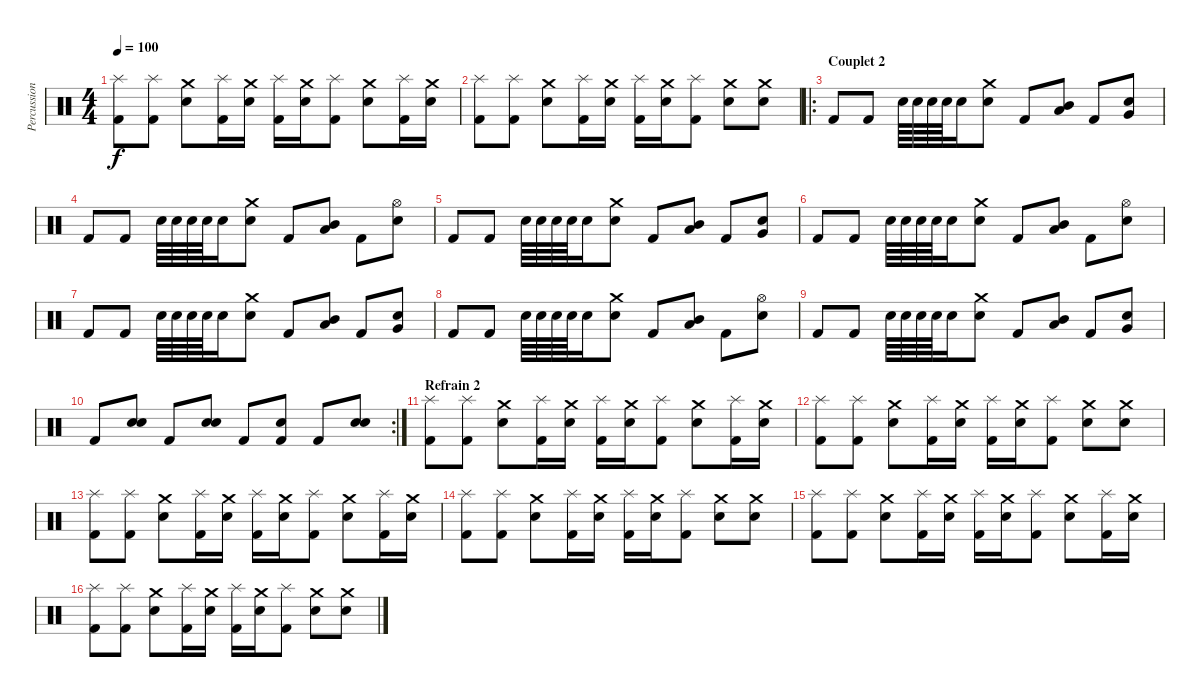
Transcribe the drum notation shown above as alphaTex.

\track ("Percussions" "Percussion") {instrument percussion}
\staff {score}
\articulation defaults
\ts (4 4)
\tempo 100
\clef neutral
\ks c
("Splash (hit)" "Kick (hit) 2").8{dy f} ("Splash (hit)" "Kick (hit) 2").8 ("Crash medium (hit)" "Snare (hit) 2").8 ("Splash (hit)" "Kick (hit) 2").16 ("Crash medium (hit)" "Snare (hit) 2").16 ("Splash (hit)" "Kick (hit) 2").16 ("Crash medium (hit)" "Snare (hit) 2").16 ("Splash (hit)" "Kick (hit) 2").8 ("Crash medium (hit)" "Snare (hit) 2").8 ("Splash (hit)" "Kick (hit) 2").16 ("Crash medium (hit)" "Snare (hit) 2").16 |
("Splash (hit)" "Kick (hit) 2").8 ("Splash (hit)" "Kick (hit) 2").8 ("Crash medium (hit)" "Snare (hit) 2").8 ("Splash (hit)" "Kick (hit) 2").16 ("Crash medium (hit)" "Snare (hit) 2").16 ("Splash (hit)" "Kick (hit) 2").16 ("Crash medium (hit)" "Snare (hit) 2").16 ("Splash (hit)" "Kick (hit) 2").8 ("Crash medium (hit)" "Snare (hit) 2").8 ("Crash medium (hit)" "Snare (hit) 2").8 |
\ro
\section ("" "Couplet 2")
"Kick (hit) 2".8 "Kick (hit) 2".8 "Snare (hit) 2".64 "Snare (hit) 2".64 "Snare (hit) 2".64 "Snare (hit) 2".64 "Snare (hit) 2".16 ("Crash medium (hit)" "Snare (hit) 2").8 "Kick (hit) 2".8 ("Mid Tom (hit)" "Low Tom (hit)").8 "Kick (hit) 2".8 ("Very Low Tom (hit)" "Snare (hit) 2").8 |
"Kick (hit) 2".8 "Kick (hit) 2".8 "Snare (hit) 2".64 "Snare (hit) 2".64 "Snare (hit) 2".64 "Snare (hit) 2".64 "Snare (hit) 2".16 ("Crash medium (hit)" "Snare (hit) 2").8 "Kick (hit) 2".8 ("Mid Tom (hit)" "Low Tom (hit)").8 "Kick (hit) 2".8 ("Hi-Hat (open)" "Snare (hit) 2").8 |
"Kick (hit) 2".8 "Kick (hit) 2".8 "Snare (hit) 2".64 "Snare (hit) 2".64 "Snare (hit) 2".64 "Snare (hit) 2".64 "Snare (hit) 2".16 ("Crash medium (hit)" "Snare (hit) 2").8 "Kick (hit) 2".8 ("Mid Tom (hit)" "Low Tom (hit)").8 "Kick (hit) 2".8 ("Very Low Tom (hit)" "Snare (hit) 2").8 |
"Kick (hit) 2".8 "Kick (hit) 2".8 "Snare (hit) 2".64 "Snare (hit) 2".64 "Snare (hit) 2".64 "Snare (hit) 2".64 "Snare (hit) 2".16 ("Crash medium (hit)" "Snare (hit) 2").8 "Kick (hit) 2".8 ("Mid Tom (hit)" "Low Tom (hit)").8 "Kick (hit) 2".8 ("Hi-Hat (open)" "Snare (hit) 2").8 |
"Kick (hit) 2".8 "Kick (hit) 2".8 "Snare (hit) 2".64 "Snare (hit) 2".64 "Snare (hit) 2".64 "Snare (hit) 2".64 "Snare (hit) 2".16 ("Crash medium (hit)" "Snare (hit) 2").8 "Kick (hit) 2".8 ("Mid Tom (hit)" "Low Tom (hit)").8 "Kick (hit) 2".8 ("Very Low Tom (hit)" "Snare (hit) 2").8 |
"Kick (hit) 2".8 "Kick (hit) 2".8 "Snare (hit) 2".64 "Snare (hit) 2".64 "Snare (hit) 2".64 "Snare (hit) 2".64 "Snare (hit) 2".16 ("Crash medium (hit)" "Snare (hit) 2").8 "Kick (hit) 2".8 ("Mid Tom (hit)" "Low Tom (hit)").8 "Kick (hit) 2".8 ("Hi-Hat (open)" "Snare (hit) 2").8 |
"Kick (hit) 2".8 "Kick (hit) 2".8 "Snare (hit) 2".64 "Snare (hit) 2".64 "Snare (hit) 2".64 "Snare (hit) 2".64 "Snare (hit) 2".16 ("Crash medium (hit)" "Snare (hit) 2").8 "Kick (hit) 2".8 ("Mid Tom (hit)" "Low Tom (hit)").8 "Kick (hit) 2".8 ("Very Low Tom (hit)" "Snare (hit) 2").8 |
\rc 2 "Kick (hit) 2".8
("Snare (hit) 2" "Snare (hit) 2").8 "Kick (hit) 2".8 ("Snare (hit) 2" "Snare (hit) 2").8 "Kick (hit) 2".8 ("Kick (hit) 2" "Snare (hit) 2").8 "Kick (hit) 2".8 ("Snare (hit) 2" "Snare (hit) 2").8 |
\section ("" "Refrain 2")
("Splash (hit)" "Kick (hit) 2").8 ("Splash (hit)" "Kick (hit) 2").8 ("Crash medium (hit)" "Snare (hit) 2").8 ("Splash (hit)" "Kick (hit) 2").16 ("Crash medium (hit)" "Snare (hit) 2").16 ("Splash (hit)" "Kick (hit) 2").16 ("Crash medium (hit)" "Snare (hit) 2").16 ("Splash (hit)" "Kick (hit) 2").8 ("Crash medium (hit)" "Snare (hit) 2").8 ("Splash (hit)" "Kick (hit) 2").16 ("Crash medium (hit)" "Snare (hit) 2").16 |
("Splash (hit)" "Kick (hit) 2").8 ("Splash (hit)" "Kick (hit) 2").8 ("Crash medium (hit)" "Snare (hit) 2").8 ("Splash (hit)" "Kick (hit) 2").16 ("Crash medium (hit)" "Snare (hit) 2").16 ("Splash (hit)" "Kick (hit) 2").16 ("Crash medium (hit)" "Snare (hit) 2").16 ("Splash (hit)" "Kick (hit) 2").8 ("Crash medium (hit)" "Snare (hit) 2").8 ("Crash medium (hit)" "Snare (hit) 2").8 |
("Splash (hit)" "Kick (hit) 2").8 ("Splash (hit)" "Kick (hit) 2").8 ("Crash medium (hit)" "Snare (hit) 2").8 ("Splash (hit)" "Kick (hit) 2").16 ("Crash medium (hit)" "Snare (hit) 2").16 ("Splash (hit)" "Kick (hit) 2").16 ("Crash medium (hit)" "Snare (hit) 2").16 ("Splash (hit)" "Kick (hit) 2").8 ("Crash medium (hit)" "Snare (hit) 2").8 ("Splash (hit)" "Kick (hit) 2").16 ("Crash medium (hit)" "Snare (hit) 2").16 |
("Splash (hit)" "Kick (hit) 2").8 ("Splash (hit)" "Kick (hit) 2").8 ("Crash medium (hit)" "Snare (hit) 2").8 ("Splash (hit)" "Kick (hit) 2").16 ("Crash medium (hit)" "Snare (hit) 2").16 ("Splash (hit)" "Kick (hit) 2").16 ("Crash medium (hit)" "Snare (hit) 2").16 ("Splash (hit)" "Kick (hit) 2").8 ("Crash medium (hit)" "Snare (hit) 2").8 ("Crash medium (hit)" "Snare (hit) 2").8 |
("Splash (hit)" "Kick (hit) 2").8 ("Splash (hit)" "Kick (hit) 2").8 ("Crash medium (hit)" "Snare (hit) 2").8 ("Splash (hit)" "Kick (hit) 2").16 ("Crash medium (hit)" "Snare (hit) 2").16 ("Splash (hit)" "Kick (hit) 2").16 ("Crash medium (hit)" "Snare (hit) 2").16 ("Splash (hit)" "Kick (hit) 2").8 ("Crash medium (hit)" "Snare (hit) 2").8 ("Splash (hit)" "Kick (hit) 2").16 ("Crash medium (hit)" "Snare (hit) 2").16 |
("Splash (hit)" "Kick (hit) 2").8 ("Splash (hit)" "Kick (hit) 2").8 ("Crash medium (hit)" "Snare (hit) 2").8 ("Splash (hit)" "Kick (hit) 2").16 ("Crash medium (hit)" "Snare (hit) 2").16 ("Splash (hit)" "Kick (hit) 2").16 ("Crash medium (hit)" "Snare (hit) 2").16 ("Splash (hit)" "Kick (hit) 2").8 ("Crash medium (hit)" "Snare (hit) 2").8 ("Crash medium (hit)" "Snare (hit) 2").8
